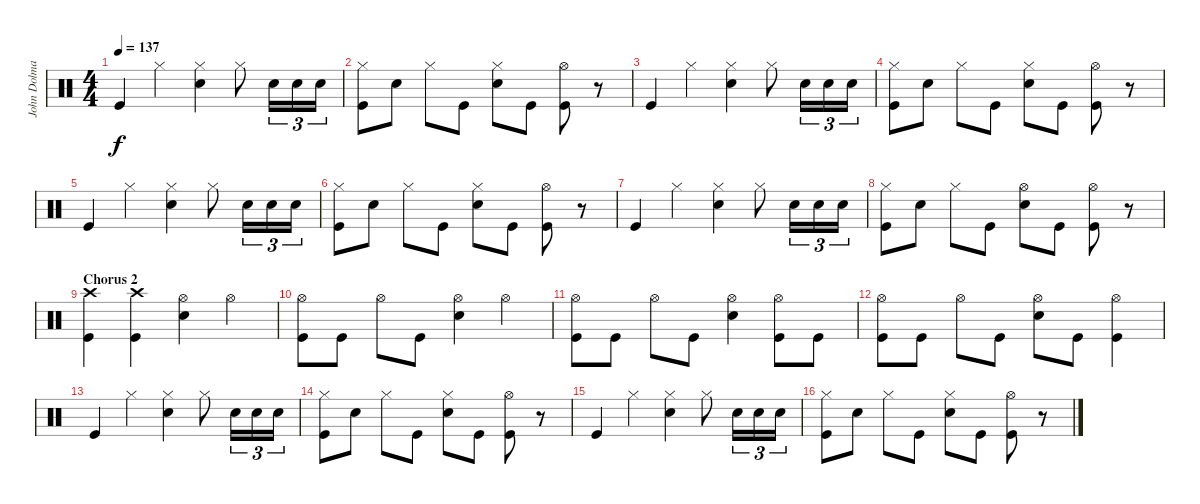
\track ("John Dolmayan - Drums" "John Dolma") {instrument percussion}
\staff {score}
\articulation defaults
\ts (4 4)
\tempo 137
\clef neutral
\ks c "Kick (hit)".4{dy f} "Hi-Hat (closed)".4
("Hi-Hat (closed)" "Snare (hit) 2").4 "Hi-Hat (closed)".8 "Snare (hit) 2".16{tu (3 2)} "Snare (hit) 2".16{tu (3 2)} "Snare (hit) 2".16{tu (3 2)} |
("Hi-Hat (closed)" "Kick (hit)").8 "Snare (hit) 2".8 "Hi-Hat (closed)".8 "Kick (hit)".8 ("Hi-Hat (closed)" "Snare (hit) 2").8 "Kick (hit)".8 ("Hi-Hat (open)" "Kick (hit)").8 r.8 |
"Kick (hit)".4 "Hi-Hat (closed)".4 ("Hi-Hat (closed)" "Snare (hit) 2").4 "Hi-Hat (closed)".8 "Snare (hit) 2".16{tu (3 2)} "Snare (hit) 2".16{tu (3 2)} "Snare (hit) 2".16{tu (3 2)} |
("Hi-Hat (closed)" "Kick (hit)").8 "Snare (hit) 2".8 "Hi-Hat (closed)".8 "Kick (hit)".8 ("Hi-Hat (closed)" "Snare (hit) 2").8 "Kick (hit)".8 ("Hi-Hat (open)" "Kick (hit)").8 r.8 |
"Kick (hit)".4 "Hi-Hat (closed)".4 ("Hi-Hat (closed)" "Snare (hit) 2").4 "Hi-Hat (closed)".8 "Snare (hit) 2".16{tu (3 2)} "Snare (hit) 2".16{tu (3 2)} "Snare (hit) 2".16{tu (3 2)} |
("Hi-Hat (closed)" "Kick (hit)").8 "Snare (hit) 2".8 "Hi-Hat (closed)".8 "Kick (hit)".8 ("Hi-Hat (closed)" "Snare (hit) 2").8 "Kick (hit)".8 ("Hi-Hat (open)" "Kick (hit)").8 r.8 |
"Kick (hit)".4 "Hi-Hat (closed)".4 ("Hi-Hat (closed)" "Snare (hit) 2").4 "Hi-Hat (closed)".8 "Snare (hit) 2".16{tu (3 2)} "Snare (hit) 2".16{tu (3 2)} "Snare (hit) 2".16{tu (3 2)} |
("Hi-Hat (closed)" "Kick (hit)").8 "Snare (hit) 2".8 "Hi-Hat (closed)".8 "Kick (hit)".8 ("Hi-Hat (open)" "Snare (hit) 2").8 "Kick (hit)".8 ("Hi-Hat (open)" "Kick (hit)").8 r.8 |
\section ("" "Chorus 2")
("Crash high (hit)" "Kick (hit)").4 ("Crash high (hit)" "Kick (hit)").4 ("Hi-Hat (open)" "Snare (hit) 2").4 "Hi-Hat (open)".4 |
("Hi-Hat (open)" "Kick (hit)").8 "Kick (hit)".8 "Hi-Hat (open)".8 "Kick (hit)".8 ("Hi-Hat (open)" "Snare (hit) 2").4 "Hi-Hat (open)".4 |
("Hi-Hat (open)" "Kick (hit)").8 "Kick (hit)".8 "Hi-Hat (open)".8 "Kick (hit)".8 ("Hi-Hat (open)" "Snare (hit) 2").4 ("Hi-Hat (open)" "Kick (hit)").8 "Kick (hit)".8 |
("Hi-Hat (open)" "Kick (hit)").8 "Kick (hit)".8 "Hi-Hat (open)".8 "Kick (hit)".8 ("Hi-Hat (open)" "Snare (hit) 2").8 "Kick (hit)".8 ("Hi-Hat (open)" "Kick (hit)").4 |
"Kick (hit)".4 "Hi-Hat (closed)".4 ("Hi-Hat (closed)" "Snare (hit) 2").4 "Hi-Hat (closed)".8 "Snare (hit) 2".16{tu (3 2)} "Snare (hit) 2".16{tu (3 2)} "Snare (hit) 2".16{tu (3 2)} |
("Hi-Hat (closed)" "Kick (hit)").8 "Snare (hit) 2".8 "Hi-Hat (closed)".8 "Kick (hit)".8 ("Hi-Hat (closed)" "Snare (hit) 2").8 "Kick (hit)".8 ("Hi-Hat (open)" "Kick (hit)").8 r.8 |
"Kick (hit)".4 "Hi-Hat (closed)".4 ("Hi-Hat (closed)" "Snare (hit) 2").4 "Hi-Hat (closed)".8 "Snare (hit) 2".16{tu (3 2)} "Snare (hit) 2".16{tu (3 2)} "Snare (hit) 2".16{tu (3 2)} |
("Hi-Hat (closed)" "Kick (hit)").8 "Snare (hit) 2".8 "Hi-Hat (closed)".8 "Kick (hit)".8 ("Hi-Hat (closed)" "Snare (hit) 2").8 "Kick (hit)".8 ("Hi-Hat (open)" "Kick (hit)").8 r.8
